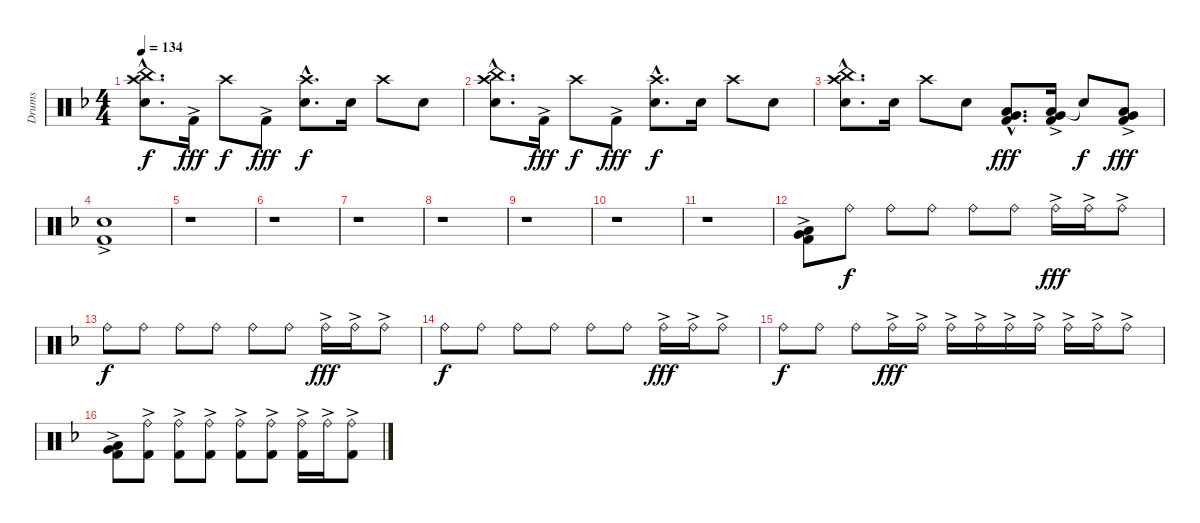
\track ("Drums" "Drums") {instrument percussion}
\staff {score}
\articulation defaults
\ts (4 4)
\tempo 134
\clef neutral
\ks dminor
("Crash high (hit)" "China (hit)"{hac} "Snare (hit) 2"{hac}).8{d dy f} "Kick (hit) 2"{ac}.16{dy fff} "Crash high (hit)".8{dy f} "Kick (hit) 2"{ac}.8{dy fff} ("Crash high (hit)" "Snare (hit) 2"{hac}).8{d dy f} "Snare (hit) 2".16 "Crash high (hit)".8 "Snare (hit) 2".8 |
("Crash high (hit)" "China (hit)"{hac} "Snare (hit) 2"{hac}).8{d} "Kick (hit) 2"{ac}.16{dy fff} "Crash high (hit)".8{dy f} "Kick (hit) 2"{ac}.8{dy fff} ("Crash high (hit)" "Snare (hit) 2"{hac}).8{d dy f} "Snare (hit) 2".16 "Crash high (hit)".8 "Snare (hit) 2".8 |
("Crash high (hit)" "China (hit)"{hac} "Snare (hit) 2"{hac}).8{d} "Snare (hit) 2".16 "Crash high (hit)".8 "Snare (hit) 2".8 ("Low Tom (hit)"{hac} "Very Low Tom (hit)"{hac} "Kick (hit) 2"{hac}).8{d dy fff} ("Low Tom (hit)" "Very Low Tom (hit)" "Kick (hit) 2"{ac}).16 "Snare (hit)"{t}.8{dy f} ("Low Tom (hit)" "Very Low Tom (hit)" "Kick (hit) 2"{ac}).8{dy fff} |
("Snare (hit) 2"{ac} "Kick (hit) 2"{ac}).1 |
r.1 |
r.1 |
r.1 |
r.1 |
r.1 |
r.1 |
r.1 |
("Very Low Tom (hit)"{ac} "Low Floor Tom (hit)"{ac} "Kick (hit) 2"{ac}).8 "Ride (bell)".8{dy f} "Ride (bell)".8 "Ride (bell)".8 "Ride (bell)".8 "Ride (bell)".8 "Ride (bell)"{ac}.16{dy fff} "Ride (bell)"{ac}.16 "Ride (bell)"{ac}.8 |
"Ride (bell)".8{dy f} "Ride (bell)".8 "Ride (bell)".8 "Ride (bell)".8 "Ride (bell)".8 "Ride (bell)".8 "Ride (bell)"{ac}.16{dy fff} "Ride (bell)"{ac}.16 "Ride (bell)"{ac}.8 |
"Ride (bell)".8{dy f} "Ride (bell)".8 "Ride (bell)".8 "Ride (bell)".8 "Ride (bell)".8 "Ride (bell)".8 "Ride (bell)"{ac}.16{dy fff} "Ride (bell)"{ac}.16 "Ride (bell)"{ac}.8 |
"Ride (bell)".8{dy f} "Ride (bell)".8 "Ride (bell)".8 "Ride (bell)"{ac}.16{dy fff} "Ride (bell)"{ac}.16 "Ride (bell)"{ac}.16 "Ride (bell)"{ac}.16 "Ride (bell)"{ac}.16 "Ride (bell)"{ac}.16 "Ride (bell)"{ac}.16 "Ride (bell)"{ac}.16 "Ride (bell)"{ac}.8 |
("Very Low Tom (hit)"{ac} "Low Floor Tom (hit)"{ac} "Kick (hit) 2"{ac}).8 ("Ride (bell)" "Kick (hit) 2"{ac}).8 ("Ride (bell)" "Kick (hit) 2"{ac}).8 ("Ride (bell)" "Kick (hit) 2"{ac}).8 ("Ride (bell)" "Kick (hit) 2"{ac}).8 ("Ride (bell)" "Kick (hit) 2"{ac}).8 ("Ride (bell)"{ac} "Kick (hit) 2"{ac}).16 "Ride (bell)"{ac}.16 ("Ride (bell)"{ac} "Kick (hit) 2"{ac}).8
